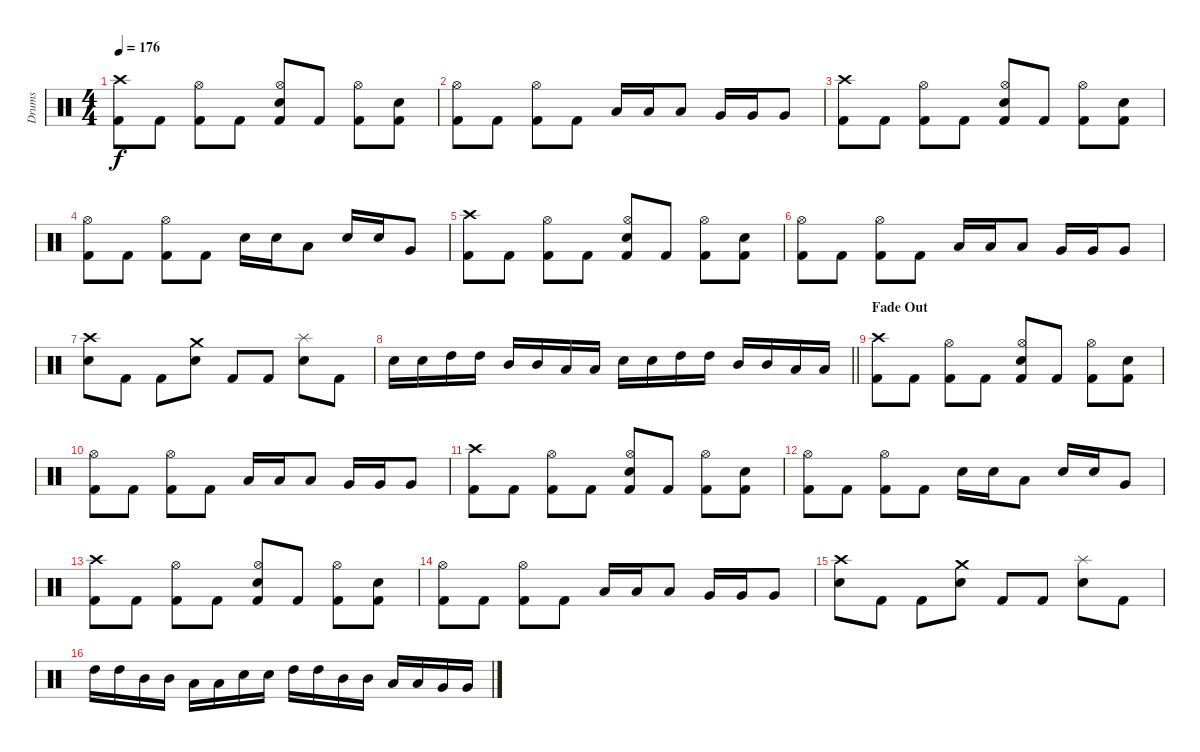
\track ("Drums" "Drums") {instrument percussion}
\staff {score}
\articulation defaults
\ts (4 4)
\tempo 176
\clef neutral
\ks c
("Crash high (hit)" "Kick (hit) 2").8{dy f} "Kick (hit) 2".8 ("Hi-Hat (open)" "Kick (hit) 2").8 "Kick (hit) 2".8 ("Hi-Hat (open)" "Snare (hit) 2" "Kick (hit) 2").8 "Kick (hit) 2".8 ("Hi-Hat (open)" "Kick (hit) 2").8 ("Snare (hit) 2" "Kick (hit) 2").8 |
("Hi-Hat (open)" "Kick (hit) 2").8 "Kick (hit) 2".8 ("Hi-Hat (open)" "Kick (hit) 2").8 "Kick (hit) 2".8 "Low Tom (hit)".16 "Low Tom (hit)".16 "Low Tom (hit)".8 "Very Low Tom (hit)".16 "Very Low Tom (hit)".16 "Very Low Tom (hit)".8 |
("Crash high (hit)" "Kick (hit) 2").8 "Kick (hit) 2".8 ("Hi-Hat (open)" "Kick (hit) 2").8 "Kick (hit) 2".8 ("Hi-Hat (open)" "Snare (hit) 2" "Kick (hit) 2").8 "Kick (hit) 2".8 ("Hi-Hat (open)" "Kick (hit) 2").8 ("Snare (hit) 2" "Kick (hit) 2").8 |
("Hi-Hat (open)" "Kick (hit) 2").8 "Kick (hit) 2".8 ("Hi-Hat (open)" "Kick (hit) 2").8 "Kick (hit) 2".8 "Snare (hit) 2".16 "Snare (hit) 2".16 "Low Tom (hit)".8 "Snare (hit) 2".16 "Snare (hit) 2".16 "Very Low Tom (hit)".8 |
("Crash high (hit)" "Kick (hit) 2").8 "Kick (hit) 2".8 ("Hi-Hat (open)" "Kick (hit) 2").8 "Kick (hit) 2".8 ("Hi-Hat (open)" "Snare (hit) 2" "Kick (hit) 2").8 "Kick (hit) 2".8 ("Hi-Hat (open)" "Kick (hit) 2").8 ("Snare (hit) 2" "Kick (hit) 2").8 |
("Hi-Hat (open)" "Kick (hit) 2").8 "Kick (hit) 2".8 ("Hi-Hat (open)" "Kick (hit) 2").8 "Kick (hit) 2".8 "Low Tom (hit)".16 "Low Tom (hit)".16 "Low Tom (hit)".8 "Very Low Tom (hit)".16 "Very Low Tom (hit)".16 "Very Low Tom (hit)".8 |
("Crash high (hit)" "Snare (hit) 2").8 "Kick (hit) 2".8 "Kick (hit) 2".8 ("Crash medium (hit)" "Snare (hit) 2").8 "Kick (hit) 2".8 "Kick (hit) 2".8 ("Splash (hit)" "Snare (hit) 2").8 "Kick (hit) 2".8 |
\barLineRight lightlight "Snare (hit) 2".16 "Snare (hit) 2".16 "High Tom (hit)".16 "High Tom (hit)".16 "Mid Tom (hit)".16 "Mid Tom (hit)".16 "Low Tom (hit)".16 "Low Tom (hit)".16 "Snare (hit) 2".16 "Snare (hit) 2".16 "High Tom (hit)".16 "High Tom (hit)".16 "Mid Tom (hit)".16 "Mid Tom (hit)".16 "Low Tom (hit)".16 "Low Tom (hit)".16
|
\section ("" "Fade Out")
("Crash high (hit)" "Kick (hit) 2").8{volume 10} "Kick (hit) 2".8 ("Hi-Hat (open)" "Kick (hit) 2").8 "Kick (hit) 2".8 ("Hi-Hat (open)" "Snare (hit) 2" "Kick (hit) 2").8 "Kick (hit) 2".8 ("Hi-Hat (open)" "Kick (hit) 2").8 ("Snare (hit) 2" "Kick (hit) 2").8 |
("Hi-Hat (open)" "Kick (hit) 2").8 "Kick (hit) 2".8 ("Hi-Hat (open)" "Kick (hit) 2").8 "Kick (hit) 2".8 "Low Tom (hit)".16 "Low Tom (hit)".16 "Low Tom (hit)".8 "Very Low Tom (hit)".16 "Very Low Tom (hit)".16 "Very Low Tom (hit)".8 |
("Crash high (hit)" "Kick (hit) 2").8 "Kick (hit) 2".8 ("Hi-Hat (open)" "Kick (hit) 2").8 "Kick (hit) 2".8 ("Hi-Hat (open)" "Snare (hit) 2" "Kick (hit) 2").8 "Kick (hit) 2".8 ("Hi-Hat (open)" "Kick (hit) 2").8 ("Snare (hit) 2" "Kick (hit) 2").8 |
("Hi-Hat (open)" "Kick (hit) 2").8 "Kick (hit) 2".8 ("Hi-Hat (open)" "Kick (hit) 2").8 "Kick (hit) 2".8 "Snare (hit) 2".16 "Snare (hit) 2".16 "Low Tom (hit)".8 "Snare (hit) 2".16 "Snare (hit) 2".16 "Very Low Tom (hit)".8 |
("Crash high (hit)" "Kick (hit) 2").8 "Kick (hit) 2".8 ("Hi-Hat (open)" "Kick (hit) 2").8 "Kick (hit) 2".8 ("Hi-Hat (open)" "Snare (hit) 2" "Kick (hit) 2").8 "Kick (hit) 2".8 ("Hi-Hat (open)" "Kick (hit) 2").8 ("Snare (hit) 2" "Kick (hit) 2").8 |
("Hi-Hat (open)" "Kick (hit) 2").8 "Kick (hit) 2".8 ("Hi-Hat (open)" "Kick (hit) 2").8 "Kick (hit) 2".8 "Low Tom (hit)".16 "Low Tom (hit)".16 "Low Tom (hit)".8 "Very Low Tom (hit)".16 "Very Low Tom (hit)".16 "Very Low Tom (hit)".8 |
("Crash high (hit)" "Snare (hit) 2").8{volume 5} "Kick (hit) 2".8 "Kick (hit) 2".8 ("Crash medium (hit)" "Snare (hit) 2").8 "Kick (hit) 2".8 "Kick (hit) 2".8 ("Splash (hit)" "Snare (hit) 2").8 "Kick (hit) 2".8 |
"High Tom (hit)".16 "High Tom (hit)".16 "Mid Tom (hit)".16 "Mid Tom (hit)".16 "Low Tom (hit)".16 "Low Tom (hit)".16 "Snare (hit) 2".16 "Snare (hit) 2".16 "High Tom (hit)".16 "High Tom (hit)".16 "Mid Tom (hit)".16 "Mid Tom (hit)".16 "Low Tom (hit)".16 "Low Tom (hit)".16 "Very Low Tom (hit)".16 "Very Low Tom (hit)".16
